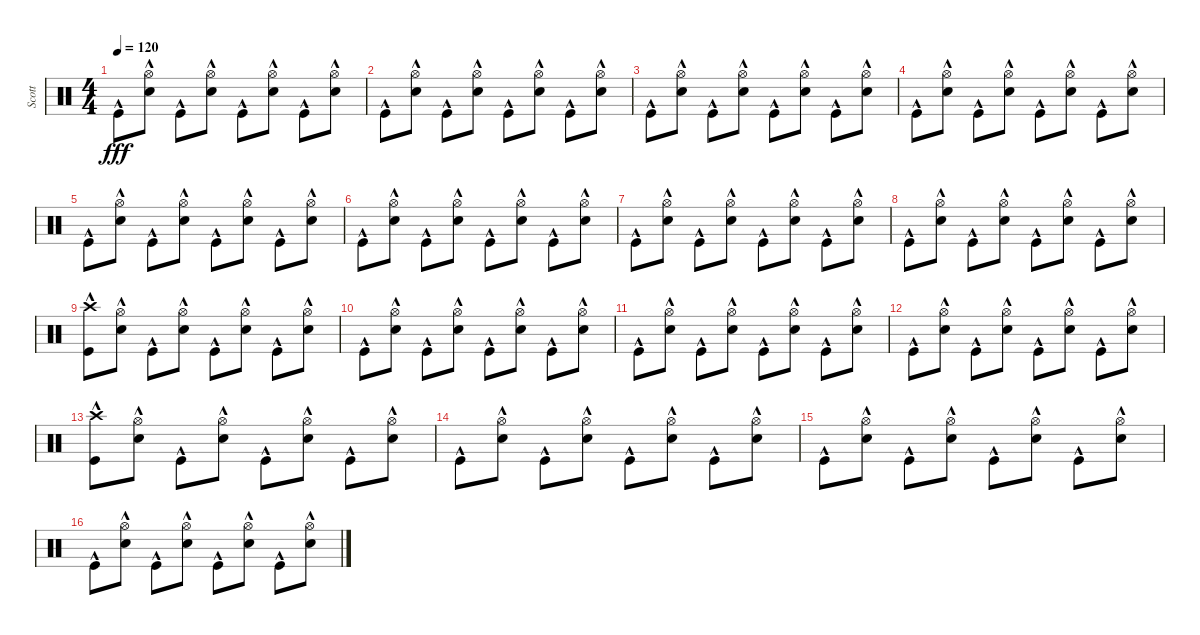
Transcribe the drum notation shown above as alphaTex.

\track ("Scott" "Scott") {instrument percussion}
\staff {score}
\articulation defaults
\ts (4 4)
\tempo 120
\clef neutral
\ks c "Kick (hit)"{hac}.8{dy fff}
("Hi-Hat (open)"{hac} "Electric Snare (hit)"{hac}).8 "Kick (hit)"{hac}.8 ("Hi-Hat (open)"{hac} "Electric Snare (hit)"{hac}).8 "Kick (hit)"{hac}.8 ("Hi-Hat (open)"{hac} "Electric Snare (hit)"{hac}).8 "Kick (hit)"{hac}.8 ("Hi-Hat (open)"{hac} "Electric Snare (hit)"{hac}).8 |
"Kick (hit)"{hac}.8 ("Hi-Hat (open)"{hac} "Electric Snare (hit)"{hac}).8 "Kick (hit)"{hac}.8 ("Hi-Hat (open)"{hac} "Electric Snare (hit)"{hac}).8 "Kick (hit)"{hac}.8 ("Hi-Hat (open)"{hac} "Electric Snare (hit)"{hac}).8 "Kick (hit)"{hac}.8 ("Hi-Hat (open)"{hac} "Electric Snare (hit)"{hac}).8 |
"Kick (hit)"{hac}.8 ("Hi-Hat (open)"{hac} "Electric Snare (hit)"{hac}).8 "Kick (hit)"{hac}.8 ("Hi-Hat (open)"{hac} "Electric Snare (hit)"{hac}).8 "Kick (hit)"{hac}.8 ("Hi-Hat (open)"{hac} "Electric Snare (hit)"{hac}).8 "Kick (hit)"{hac}.8 ("Hi-Hat (open)"{hac} "Electric Snare (hit)"{hac}).8 |
"Kick (hit)"{hac}.8 ("Hi-Hat (open)"{hac} "Electric Snare (hit)"{hac}).8 "Kick (hit)"{hac}.8 ("Hi-Hat (open)"{hac} "Electric Snare (hit)"{hac}).8 "Kick (hit)"{hac}.8 ("Hi-Hat (open)"{hac} "Electric Snare (hit)"{hac}).8 "Kick (hit)"{hac}.8 ("Hi-Hat (open)"{hac} "Electric Snare (hit)"{hac}).8 |
"Kick (hit)"{hac}.8 ("Hi-Hat (open)"{hac} "Electric Snare (hit)"{hac}).8 "Kick (hit)"{hac}.8 ("Hi-Hat (open)"{hac} "Electric Snare (hit)"{hac}).8 "Kick (hit)"{hac}.8 ("Hi-Hat (open)"{hac} "Electric Snare (hit)"{hac}).8 "Kick (hit)"{hac}.8 ("Hi-Hat (open)"{hac} "Electric Snare (hit)"{hac}).8 |
"Kick (hit)"{hac}.8 ("Hi-Hat (open)"{hac} "Electric Snare (hit)"{hac}).8 "Kick (hit)"{hac}.8 ("Hi-Hat (open)"{hac} "Electric Snare (hit)"{hac}).8 "Kick (hit)"{hac}.8 ("Hi-Hat (open)"{hac} "Electric Snare (hit)"{hac}).8 "Kick (hit)"{hac}.8 ("Hi-Hat (open)"{hac} "Electric Snare (hit)"{hac}).8 |
"Kick (hit)"{hac}.8 ("Hi-Hat (open)"{hac} "Electric Snare (hit)"{hac}).8 "Kick (hit)"{hac}.8 ("Hi-Hat (open)"{hac} "Electric Snare (hit)"{hac}).8 "Kick (hit)"{hac}.8 ("Hi-Hat (open)"{hac} "Electric Snare (hit)"{hac}).8 "Kick (hit)"{hac}.8 ("Hi-Hat (open)"{hac} "Electric Snare (hit)"{hac}).8 |
"Kick (hit)"{hac}.8 ("Hi-Hat (open)"{hac} "Electric Snare (hit)"{hac}).8 "Kick (hit)"{hac}.8 ("Hi-Hat (open)"{hac} "Electric Snare (hit)"{hac}).8 "Kick (hit)"{hac}.8 ("Hi-Hat (open)"{hac} "Electric Snare (hit)"{hac}).8 "Kick (hit)"{hac}.8 ("Hi-Hat (open)"{hac} "Electric Snare (hit)"{hac}).8 |
("Crash high (hit)"{hac} "Kick (hit)"{hac}).8 ("Hi-Hat (open)"{hac} "Electric Snare (hit)"{hac}).8 "Kick (hit)"{hac}.8 ("Hi-Hat (open)"{hac} "Electric Snare (hit)"{hac}).8 "Kick (hit)"{hac}.8 ("Hi-Hat (open)"{hac} "Electric Snare (hit)"{hac}).8 "Kick (hit)"{hac}.8 ("Hi-Hat (open)"{hac} "Electric Snare (hit)"{hac}).8 |
"Kick (hit)"{hac}.8 ("Hi-Hat (open)"{hac} "Electric Snare (hit)"{hac}).8 "Kick (hit)"{hac}.8 ("Hi-Hat (open)"{hac} "Electric Snare (hit)"{hac}).8 "Kick (hit)"{hac}.8 ("Hi-Hat (open)"{hac} "Electric Snare (hit)"{hac}).8 "Kick (hit)"{hac}.8 ("Hi-Hat (open)"{hac} "Electric Snare (hit)"{hac}).8 |
"Kick (hit)"{hac}.8 ("Hi-Hat (open)"{hac} "Electric Snare (hit)"{hac}).8 "Kick (hit)"{hac}.8 ("Hi-Hat (open)"{hac} "Electric Snare (hit)"{hac}).8 "Kick (hit)"{hac}.8 ("Hi-Hat (open)"{hac} "Electric Snare (hit)"{hac}).8 "Kick (hit)"{hac}.8 ("Hi-Hat (open)"{hac} "Electric Snare (hit)"{hac}).8 |
"Kick (hit)"{hac}.8 ("Hi-Hat (open)"{hac} "Electric Snare (hit)"{hac}).8 "Kick (hit)"{hac}.8 ("Hi-Hat (open)"{hac} "Electric Snare (hit)"{hac}).8 "Kick (hit)"{hac}.8 ("Hi-Hat (open)"{hac} "Electric Snare (hit)"{hac}).8 "Kick (hit)"{hac}.8 ("Hi-Hat (open)"{hac} "Electric Snare (hit)"{hac}).8 |
("Crash high (hit)"{hac} "Kick (hit)"{hac}).8 ("Hi-Hat (open)"{hac} "Electric Snare (hit)"{hac}).8 "Kick (hit)"{hac}.8 ("Hi-Hat (open)"{hac} "Electric Snare (hit)"{hac}).8 "Kick (hit)"{hac}.8 ("Hi-Hat (open)"{hac} "Electric Snare (hit)"{hac}).8 "Kick (hit)"{hac}.8 ("Hi-Hat (open)"{hac} "Electric Snare (hit)"{hac}).8 |
"Kick (hit)"{hac}.8 ("Hi-Hat (open)"{hac} "Electric Snare (hit)"{hac}).8 "Kick (hit)"{hac}.8 ("Hi-Hat (open)"{hac} "Electric Snare (hit)"{hac}).8 "Kick (hit)"{hac}.8 ("Hi-Hat (open)"{hac} "Electric Snare (hit)"{hac}).8 "Kick (hit)"{hac}.8 ("Hi-Hat (open)"{hac} "Electric Snare (hit)"{hac}).8 |
"Kick (hit)"{hac}.8 ("Hi-Hat (open)"{hac} "Electric Snare (hit)"{hac}).8 "Kick (hit)"{hac}.8 ("Hi-Hat (open)"{hac} "Electric Snare (hit)"{hac}).8 "Kick (hit)"{hac}.8 ("Hi-Hat (open)"{hac} "Electric Snare (hit)"{hac}).8 "Kick (hit)"{hac}.8 ("Hi-Hat (open)"{hac} "Electric Snare (hit)"{hac}).8 |
"Kick (hit)"{hac}.8 ("Hi-Hat (open)"{hac} "Electric Snare (hit)"{hac}).8 "Kick (hit)"{hac}.8 ("Hi-Hat (open)"{hac} "Electric Snare (hit)"{hac}).8 "Kick (hit)"{hac}.8 ("Hi-Hat (open)"{hac} "Electric Snare (hit)"{hac}).8 "Kick (hit)"{hac}.8 ("Hi-Hat (open)"{hac} "Electric Snare (hit)"{hac}).8
